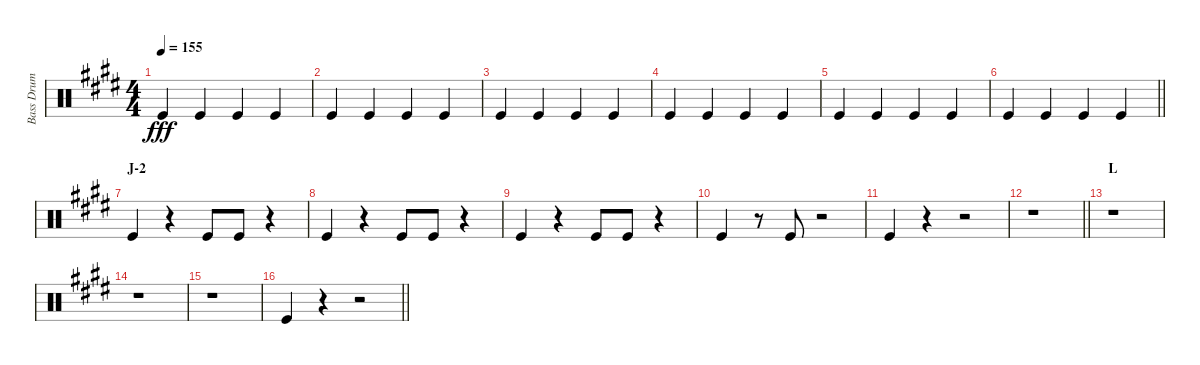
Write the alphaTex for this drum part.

\track ("Bass Drum" "Bass Drum") {instrument percussion}
\staff {score}
\articulation defaults
\ts (4 4)
\tempo 155
\clef neutral
\ks e "Kick (hit)".4{dy fff} "Kick (hit)".4 "Kick (hit)".4 "Kick (hit)".4
|
"Kick (hit)".4 "Kick (hit)".4 "Kick (hit)".4 "Kick (hit)".4 |
"Kick (hit)".4 "Kick (hit)".4 "Kick (hit)".4 "Kick (hit)".4 |
"Kick (hit)".4 "Kick (hit)".4 "Kick (hit)".4 "Kick (hit)".4 |
"Kick (hit)".4 "Kick (hit)".4 "Kick (hit)".4 "Kick (hit)".4 |
\barLineRight lightlight "Kick (hit)".4 "Kick (hit)".4 "Kick (hit)".4 "Kick (hit)".4
|
\section ("" "J-2")
"Kick (hit)".4 r.4 "Kick (hit)".8 "Kick (hit)".8 r.4 |
"Kick (hit)".4 r.4 "Kick (hit)".8 "Kick (hit)".8 r.4 |
"Kick (hit)".4 r.4 "Kick (hit)".8 "Kick (hit)".8 r.4 |
"Kick (hit)".4 r.8 "Kick (hit)".8 r.2 |
"Kick (hit)".4 r.4 r.2 |
\barLineRight lightlight
r.1 |
\section ("" "L")
r.1 |
r.1 |
r.1 |
\barLineRight lightlight "Kick (hit)".4
r.4 r.2
